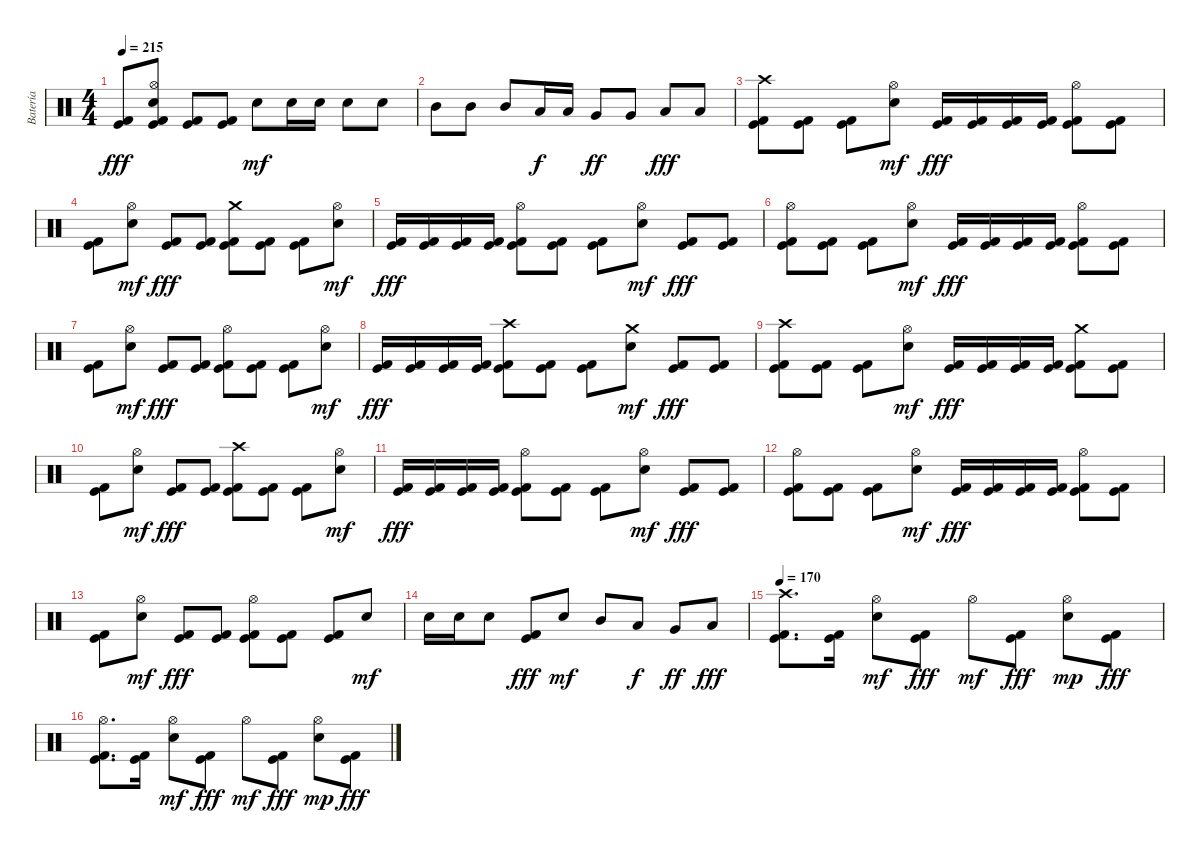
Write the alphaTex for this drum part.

\track ("Batería" "Batería") {instrument percussion}
\staff {score}
\articulation defaults
\ts (4 4)
\tempo 215
\clef neutral
\ks c
("Kick (hit) 2" "Kick (hit)").8{dy fff} ("Hi-Hat (open)" "Electric Snare (hit)" "Kick (hit) 2" "Kick (hit)").8 ("Kick (hit) 2" "Kick (hit)").8 ("Kick (hit) 2" "Kick (hit)").8 "Electric Snare (hit)".8{dy mf} "Electric Snare (hit)".16 "Electric Snare (hit)".16 "Electric Snare (hit)".8 "Electric Snare (hit)".8 |
"Mid Tom (hit)".8 "Mid Tom (hit)".8 "Mid Tom (hit)".8 "Low Tom (hit)".16{dy f} "Low Tom (hit)".16 "Very Low Tom (hit)".8{dy ff} "Very Low Tom (hit)".8 "Low Floor Tom (hit)".8{dy fff} "Low Floor Tom (hit)".8 |
("Crash high (hit)" "Kick (hit) 2" "Kick (hit)").8 ("Kick (hit) 2" "Kick (hit)").8 ("Kick (hit) 2" "Kick (hit)").8 ("Hi-Hat (open)" "Electric Snare (hit)").8{dy mf} ("Kick (hit) 2" "Kick (hit)").16{dy fff} ("Kick (hit) 2" "Kick (hit)").16 ("Kick (hit) 2" "Kick (hit)").16 ("Kick (hit) 2" "Kick (hit)").16 ("Hi-Hat (open)" "Kick (hit) 2" "Kick (hit)").8 ("Kick (hit) 2" "Kick (hit)").8 |
("Kick (hit) 2" "Kick (hit)").8 ("Hi-Hat (open)" "Electric Snare (hit)").8{dy mf} ("Kick (hit) 2" "Kick (hit)").8{dy fff} ("Kick (hit) 2" "Kick (hit)").8 ("Crash medium (hit)" "Kick (hit) 2" "Kick (hit)").8 ("Kick (hit) 2" "Kick (hit)").8 ("Kick (hit) 2" "Kick (hit)").8 ("Hi-Hat (open)" "Electric Snare (hit)").8{dy mf} |
("Kick (hit) 2" "Kick (hit)").16{dy fff} ("Kick (hit) 2" "Kick (hit)").16 ("Kick (hit) 2" "Kick (hit)").16 ("Kick (hit) 2" "Kick (hit)").16 ("Hi-Hat (open)" "Kick (hit) 2" "Kick (hit)").8 ("Kick (hit) 2" "Kick (hit)").8 ("Kick (hit) 2" "Kick (hit)").8 ("Hi-Hat (open)" "Electric Snare (hit)").8{dy mf} ("Kick (hit) 2" "Kick (hit)").8{dy fff} ("Kick (hit) 2" "Kick (hit)").8 |
("Hi-Hat (open)" "Kick (hit) 2" "Kick (hit)").8 ("Kick (hit) 2" "Kick (hit)").8 ("Kick (hit) 2" "Kick (hit)").8 ("Hi-Hat (open)" "Electric Snare (hit)").8{dy mf} ("Kick (hit) 2" "Kick (hit)").16{dy fff} ("Kick (hit) 2" "Kick (hit)").16 ("Kick (hit) 2" "Kick (hit)").16 ("Kick (hit) 2" "Kick (hit)").16 ("Hi-Hat (open)" "Kick (hit) 2" "Kick (hit)").8 ("Kick (hit) 2" "Kick (hit)").8 |
("Kick (hit) 2" "Kick (hit)").8 ("Hi-Hat (open)" "Electric Snare (hit)").8{dy mf} ("Kick (hit) 2" "Kick (hit)").8{dy fff} ("Kick (hit) 2" "Kick (hit)").8 ("Hi-Hat (open)" "Kick (hit) 2" "Kick (hit)").8 ("Kick (hit) 2" "Kick (hit)").8 ("Kick (hit) 2" "Kick (hit)").8 ("Hi-Hat (open)" "Electric Snare (hit)").8{dy mf} |
("Kick (hit) 2" "Kick (hit)").16{dy fff} ("Kick (hit) 2" "Kick (hit)").16 ("Kick (hit) 2" "Kick (hit)").16 ("Kick (hit) 2" "Kick (hit)").16 ("Crash high (hit)" "Kick (hit) 2" "Kick (hit)").8 ("Kick (hit) 2" "Kick (hit)").8 ("Kick (hit) 2" "Kick (hit)").8 ("Crash medium (hit)" "Electric Snare (hit)").8{dy mf} ("Kick (hit) 2" "Kick (hit)").8{dy fff} ("Kick (hit) 2" "Kick (hit)").8 |
("Crash high (hit)" "Kick (hit) 2" "Kick (hit)").8 ("Kick (hit) 2" "Kick (hit)").8 ("Kick (hit) 2" "Kick (hit)").8 ("Hi-Hat (open)" "Electric Snare (hit)").8{dy mf} ("Kick (hit) 2" "Kick (hit)").16{dy fff} ("Kick (hit) 2" "Kick (hit)").16 ("Kick (hit) 2" "Kick (hit)").16 ("Kick (hit) 2" "Kick (hit)").16 ("Crash medium (hit)" "Kick (hit) 2" "Kick (hit)").8 ("Kick (hit) 2" "Kick (hit)").8 |
("Kick (hit) 2" "Kick (hit)").8 ("Hi-Hat (open)" "Electric Snare (hit)").8{dy mf} ("Kick (hit) 2" "Kick (hit)").8{dy fff} ("Kick (hit) 2" "Kick (hit)").8 ("Crash high (hit)" "Kick (hit) 2" "Kick (hit)").8 ("Kick (hit) 2" "Kick (hit)").8 ("Kick (hit) 2" "Kick (hit)").8 ("Hi-Hat (open)" "Electric Snare (hit)").8{dy mf} |
("Kick (hit) 2" "Kick (hit)").16{dy fff} ("Kick (hit) 2" "Kick (hit)").16 ("Kick (hit) 2" "Kick (hit)").16 ("Kick (hit) 2" "Kick (hit)").16 ("Hi-Hat (open)" "Kick (hit) 2" "Kick (hit)").8 ("Kick (hit) 2" "Kick (hit)").8 ("Kick (hit) 2" "Kick (hit)").8 ("Hi-Hat (open)" "Electric Snare (hit)").8{dy mf} ("Kick (hit) 2" "Kick (hit)").8{dy fff} ("Kick (hit) 2" "Kick (hit)").8 |
("Hi-Hat (open)" "Kick (hit) 2" "Kick (hit)").8 ("Kick (hit) 2" "Kick (hit)").8 ("Kick (hit) 2" "Kick (hit)").8 ("Hi-Hat (open)" "Electric Snare (hit)").8{dy mf} ("Kick (hit) 2" "Kick (hit)").16{dy fff} ("Kick (hit) 2" "Kick (hit)").16 ("Kick (hit) 2" "Kick (hit)").16 ("Kick (hit) 2" "Kick (hit)").16 ("Hi-Hat (open)" "Kick (hit) 2" "Kick (hit)").8 ("Kick (hit) 2" "Kick (hit)").8 |
("Kick (hit) 2" "Kick (hit)").8 ("Hi-Hat (open)" "Electric Snare (hit)").8{dy mf} ("Kick (hit) 2" "Kick (hit)").8{dy fff} ("Kick (hit) 2" "Kick (hit)").8 ("Hi-Hat (open)" "Kick (hit) 2" "Kick (hit)").8 ("Kick (hit) 2" "Kick (hit)").8 ("Kick (hit) 2" "Kick (hit)").8 "Electric Snare (hit)".8{dy mf} |
"Electric Snare (hit)".16 "Electric Snare (hit)".16 "Electric Snare (hit)".8 ("Kick (hit) 2" "Kick (hit)").8{dy fff} "Electric Snare (hit)".8{dy mf} "Mid Tom (hit)".8 "Low Tom (hit)".8{dy f} "Very Low Tom (hit)".8{dy ff} "Low Floor Tom (hit)".8{dy fff} |
\tempo 170
("Crash high (hit)" "Kick (hit) 2" "Kick (hit)").8{d} ("Kick (hit) 2" "Kick (hit)").16 ("Hi-Hat (open)" "Electric Snare (hit)").8{dy mf} ("Kick (hit) 2" "Kick (hit)").8{dy fff} "Hi-Hat (open)".8{dy mf} ("Kick (hit) 2" "Kick (hit)").8{dy fff} ("Hi-Hat (open)" "Electric Snare (hit)").8{dy mp} ("Kick (hit) 2" "Kick (hit)").8{dy fff} |
("Hi-Hat (open)" "Kick (hit) 2" "Kick (hit)").8{d} ("Kick (hit) 2" "Kick (hit)").16 ("Hi-Hat (open)" "Electric Snare (hit)").8{dy mf} ("Kick (hit) 2" "Kick (hit)").8{dy fff} "Hi-Hat (open)".8{dy mf} ("Kick (hit) 2" "Kick (hit)").8{dy fff} ("Hi-Hat (open)" "Electric Snare (hit)").8{dy mp} ("Kick (hit) 2" "Kick (hit)").8{dy fff}
